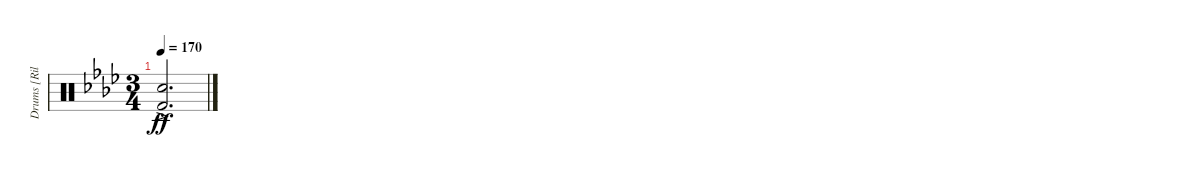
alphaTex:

\track ("Drums [Riley]" "Drums [Ril") {instrument percussion}
\staff {score}
\articulation defaults
\ts (3 4)
\tempo 170
\clef neutral
\ks ab
("Electric Snare (hit)"{ac} "Kick (hit) 2").2{d dy ff}
